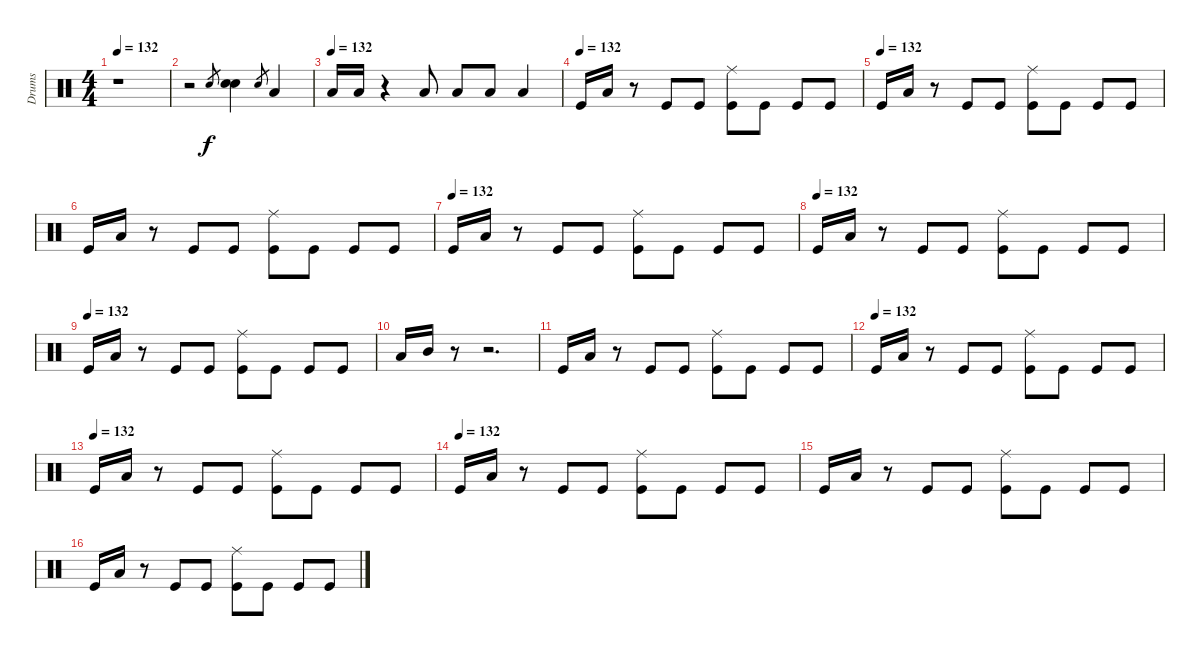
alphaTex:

\track ("Drums" "Drums") {instrument percussion}
\staff {score}
\articulation defaults
\ts (4 4)
\tempo 132
\clef neutral
\ks c
r.1{dy f} |
r.2 "Snare (hit) 2".8{gr} ("Snare (hit) 2" "Snare (hit) 2").4 "Snare (hit) 2".8{gr} "Low Tom (hit)".4 |
\tempo (132)
"Low Tom (hit)".16 "Low Tom (hit)".16 r.4 "Low Tom (hit)".8 "Low Tom (hit)".8 "Low Tom (hit)".8 "Low Tom (hit)".4 |
\tempo (132)
"Kick (hit)".16 "Low Tom (hit)".16 r.8 "Kick (hit)".8 "Kick (hit)".8 ("Ride (middle)" "Kick (hit)").8 "Kick (hit)".8 "Kick (hit)".8 "Kick (hit)".8 |
\tempo (132)
"Kick (hit)".16 "Low Tom (hit)".16 r.8 "Kick (hit)".8 "Kick (hit)".8 ("Ride (middle)" "Kick (hit)").8 "Kick (hit)".8 "Kick (hit)".8 "Kick (hit)".8 |
"Kick (hit)".16 "Low Tom (hit)".16 r.8 "Kick (hit)".8 "Kick (hit)".8 ("Ride (middle)" "Kick (hit)").8 "Kick (hit)".8 "Kick (hit)".8 "Kick (hit)".8 |
\tempo (132)
"Kick (hit)".16 "Low Tom (hit)".16 r.8 "Kick (hit)".8 "Kick (hit)".8 ("Ride (middle)" "Kick (hit)").8 "Kick (hit)".8 "Kick (hit)".8 "Kick (hit)".8 |
\tempo (132)
"Kick (hit)".16 "Low Tom (hit)".16 r.8 "Kick (hit)".8 "Kick (hit)".8 ("Ride (middle)" "Kick (hit)").8 "Kick (hit)".8 "Kick (hit)".8 "Kick (hit)".8 |
\tempo (132)
"Kick (hit)".16 "Low Tom (hit)".16 r.8 "Kick (hit)".8 "Kick (hit)".8 ("Ride (middle)" "Kick (hit)").8 "Kick (hit)".8 "Kick (hit)".8 "Kick (hit)".8 |
"Low Tom (hit)".16 "Mid Tom (hit)".16 r.8 r.2{d} |
"Kick (hit)".16 "Low Tom (hit)".16 r.8 "Kick (hit)".8 "Kick (hit)".8 ("Ride (middle)" "Kick (hit)").8 "Kick (hit)".8 "Kick (hit)".8 "Kick (hit)".8 |
\tempo (132)
"Kick (hit)".16 "Low Tom (hit)".16 r.8 "Kick (hit)".8 "Kick (hit)".8 ("Ride (middle)" "Kick (hit)").8 "Kick (hit)".8 "Kick (hit)".8 "Kick (hit)".8 |
\tempo (132)
"Kick (hit)".16 "Low Tom (hit)".16 r.8 "Kick (hit)".8 "Kick (hit)".8 ("Ride (middle)" "Kick (hit)").8 "Kick (hit)".8 "Kick (hit)".8 "Kick (hit)".8 |
\tempo (132)
"Kick (hit)".16 "Low Tom (hit)".16 r.8 "Kick (hit)".8 "Kick (hit)".8 ("Ride (middle)" "Kick (hit)").8 "Kick (hit)".8 "Kick (hit)".8 "Kick (hit)".8 |
"Kick (hit)".16 "Low Tom (hit)".16 r.8 "Kick (hit)".8 "Kick (hit)".8 ("Ride (middle)" "Kick (hit)").8 "Kick (hit)".8 "Kick (hit)".8 "Kick (hit)".8 |
"Kick (hit)".16 "Low Tom (hit)".16 r.8 "Kick (hit)".8 "Kick (hit)".8 ("Ride (middle)" "Kick (hit)").8 "Kick (hit)".8 "Kick (hit)".8 "Kick (hit)".8
